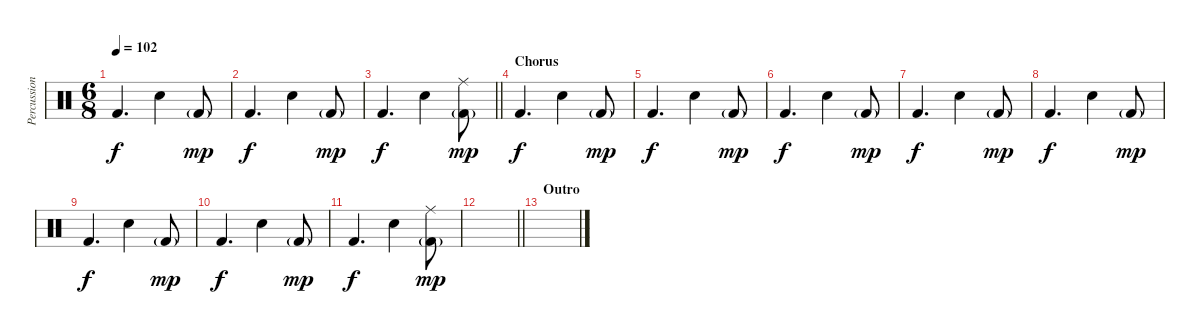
\track ("Percussion" "Percussion") {instrument percussion}
\staff {score}
\articulation defaults
\ts (6 8)
\tempo 102
\clef neutral
\ks c "Kick (hit) 2".4{d dy f} "Snare (hit) 2".4 "Kick (hit) 2"{g}.8{dy mp}
|
"Kick (hit) 2".4{d dy f} "Snare (hit) 2".4 "Kick (hit) 2"{g}.8{dy mp} |
\barLineRight lightlight "Kick (hit) 2".4{d dy f} "Snare (hit) 2".4
("Ride (middle)" "Kick (hit) 2"{g}).8{dy mp} |
\section ("" "Chorus")
"Kick (hit) 2".4{d dy f} "Snare (hit) 2".4 "Kick (hit) 2"{g}.8{dy mp} |
"Kick (hit) 2".4{d dy f} "Snare (hit) 2".4 "Kick (hit) 2"{g}.8{dy mp} |
"Kick (hit) 2".4{d dy f} "Snare (hit) 2".4 "Kick (hit) 2"{g}.8{dy mp} |
"Kick (hit) 2".4{d dy f} "Snare (hit) 2".4 "Kick (hit) 2"{g}.8{dy mp} |
"Kick (hit) 2".4{d dy f} "Snare (hit) 2".4 "Kick (hit) 2"{g}.8{dy mp} |
"Kick (hit) 2".4{d dy f} "Snare (hit) 2".4 "Kick (hit) 2"{g}.8{dy mp} |
"Kick (hit) 2".4{d dy f} "Snare (hit) 2".4 "Kick (hit) 2"{g}.8{dy mp} |
"Kick (hit) 2".4{d dy f} "Snare (hit) 2".4 ("Ride (middle)" "Kick (hit) 2"{g}).8{dy mp} |
\barLineRight lightlight
|
\section ("" "Outro")
